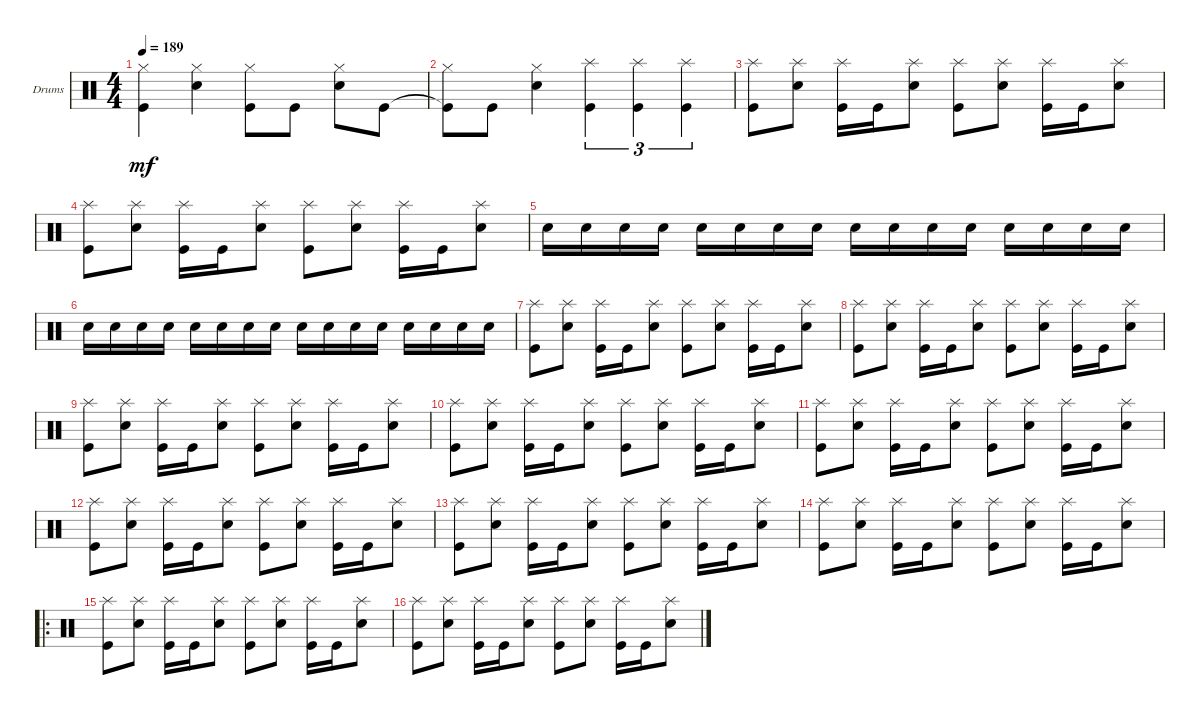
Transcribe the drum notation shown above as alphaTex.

\defaultSystemsLayout 4
\bracketExtendMode groupsimilarinstruments
\firstSystemTrackNameOrientation horizontal
\otherSystemsTrackNameOrientation horizontal
\track ("Drumkit" "Drums") {instrument percussion}
\staff {score}
\articulation defaults
\ts (4 4)
\tempo 189
\clef neutral
\ks c
("Kick (hit)" "Hi-Hat (closed)").4{dy mf} ("Snare (hit) 2" "Hi-Hat (closed)").4 ("Kick (hit)" "Hi-Hat (closed)").8 "Kick (hit)".8 ("Snare (hit) 2" "Hi-Hat (closed)").8 "Kick (hit)".8 |
("Kick (hit)"{t} "Hi-Hat (closed)").8 "Kick (hit)".8 ("Snare (hit) 2" "Hi-Hat (closed)").4 ("Kick (hit)" "Splash (hit)").4{tu (3 2)} ("Kick (hit)" "Splash (hit)").4{tu (3 2)} ("Kick (hit)" "Splash (hit)").4{tu (3 2)} |
("Kick (hit)" "Splash (hit)").8 ("Snare (hit) 2" "Splash (hit)").8 ("Kick (hit)" "Splash (hit)").16 "Kick (hit)".16 ("Snare (hit) 2" "Splash (hit)").8 ("Kick (hit)" "Splash (hit)").8 ("Snare (hit) 2" "Splash (hit)").8 ("Kick (hit)" "Splash (hit)").16 "Kick (hit)".16 ("Snare (hit) 2" "Splash (hit)").8 |
("Kick (hit)" "Splash (hit)").8 ("Snare (hit) 2" "Splash (hit)").8 ("Kick (hit)" "Splash (hit)").16 "Kick (hit)".16 ("Snare (hit) 2" "Splash (hit)").8 ("Kick (hit)" "Splash (hit)").8 ("Snare (hit) 2" "Splash (hit)").8 ("Kick (hit)" "Splash (hit)").16 "Kick (hit)".16 ("Snare (hit) 2" "Splash (hit)").8 |
"Snare (hit) 2".16 "Snare (hit) 2".16 "Snare (hit) 2".16 "Snare (hit) 2".16 "Snare (hit) 2".16 "Snare (hit) 2".16 "Snare (hit) 2".16 "Snare (hit) 2".16 "Snare (hit) 2".16 "Snare (hit) 2".16 "Snare (hit) 2".16 "Snare (hit) 2".16 "Snare (hit) 2".16 "Snare (hit) 2".16 "Snare (hit) 2".16 "Snare (hit) 2".16 |
"Snare (hit) 2".16 "Snare (hit) 2".16 "Snare (hit) 2".16 "Snare (hit) 2".16 "Snare (hit) 2".16 "Snare (hit) 2".16 "Snare (hit) 2".16 "Snare (hit) 2".16 "Snare (hit) 2".16 "Snare (hit) 2".16 "Snare (hit) 2".16 "Snare (hit) 2".16 "Snare (hit) 2".16 "Snare (hit) 2".16 "Snare (hit) 2".16 "Snare (hit) 2".16 |
("Kick (hit)" "Splash (hit)").8 ("Snare (hit) 2" "Splash (hit)").8 ("Kick (hit)" "Splash (hit)").16 "Kick (hit)".16 ("Snare (hit) 2" "Splash (hit)").8 ("Kick (hit)" "Splash (hit)").8 ("Snare (hit) 2" "Splash (hit)").8 ("Kick (hit)" "Splash (hit)").16 "Kick (hit)".16 ("Snare (hit) 2" "Splash (hit)").8 |
("Kick (hit)" "Splash (hit)").8 ("Snare (hit) 2" "Splash (hit)").8 ("Kick (hit)" "Splash (hit)").16 "Kick (hit)".16 ("Snare (hit) 2" "Splash (hit)").8 ("Kick (hit)" "Splash (hit)").8 ("Snare (hit) 2" "Splash (hit)").8 ("Kick (hit)" "Splash (hit)").16 "Kick (hit)".16 ("Snare (hit) 2" "Splash (hit)").8 |
("Kick (hit)" "Splash (hit)").8 ("Snare (hit) 2" "Splash (hit)").8 ("Kick (hit)" "Splash (hit)").16 "Kick (hit)".16 ("Snare (hit) 2" "Splash (hit)").8 ("Kick (hit)" "Splash (hit)").8 ("Snare (hit) 2" "Splash (hit)").8 ("Kick (hit)" "Splash (hit)").16 "Kick (hit)".16 ("Snare (hit) 2" "Splash (hit)").8 |
("Kick (hit)" "Splash (hit)").8 ("Snare (hit) 2" "Splash (hit)").8 ("Kick (hit)" "Splash (hit)").16 "Kick (hit)".16 ("Snare (hit) 2" "Splash (hit)").8 ("Kick (hit)" "Splash (hit)").8 ("Snare (hit) 2" "Splash (hit)").8 ("Kick (hit)" "Splash (hit)").16 "Kick (hit)".16 ("Snare (hit) 2" "Splash (hit)").8 |
("Kick (hit)" "Splash (hit)").8 ("Snare (hit) 2" "Splash (hit)").8 ("Kick (hit)" "Splash (hit)").16 "Kick (hit)".16 ("Snare (hit) 2" "Splash (hit)").8 ("Kick (hit)" "Splash (hit)").8 ("Snare (hit) 2" "Splash (hit)").8 ("Kick (hit)" "Splash (hit)").16 "Kick (hit)".16 ("Snare (hit) 2" "Splash (hit)").8 |
("Kick (hit)" "Splash (hit)").8 ("Snare (hit) 2" "Splash (hit)").8 ("Kick (hit)" "Splash (hit)").16 "Kick (hit)".16 ("Snare (hit) 2" "Splash (hit)").8 ("Kick (hit)" "Splash (hit)").8 ("Snare (hit) 2" "Splash (hit)").8 ("Kick (hit)" "Splash (hit)").16 "Kick (hit)".16 ("Snare (hit) 2" "Splash (hit)").8 |
("Kick (hit)" "Splash (hit)").8 ("Snare (hit) 2" "Splash (hit)").8 ("Kick (hit)" "Splash (hit)").16 "Kick (hit)".16 ("Snare (hit) 2" "Splash (hit)").8 ("Kick (hit)" "Splash (hit)").8 ("Snare (hit) 2" "Splash (hit)").8 ("Kick (hit)" "Splash (hit)").16 "Kick (hit)".16 ("Snare (hit) 2" "Splash (hit)").8 |
("Kick (hit)" "Splash (hit)").8 ("Snare (hit) 2" "Splash (hit)").8 ("Kick (hit)" "Splash (hit)").16 "Kick (hit)".16 ("Snare (hit) 2" "Splash (hit)").8 ("Kick (hit)" "Splash (hit)").8 ("Snare (hit) 2" "Splash (hit)").8 ("Kick (hit)" "Splash (hit)").16 "Kick (hit)".16 ("Snare (hit) 2" "Splash (hit)").8 |
\ro
("Kick (hit)" "Splash (hit)").8 ("Snare (hit) 2" "Splash (hit)").8 ("Kick (hit)" "Splash (hit)").16 "Kick (hit)".16 ("Snare (hit) 2" "Splash (hit)").8 ("Kick (hit)" "Splash (hit)").8 ("Snare (hit) 2" "Splash (hit)").8 ("Kick (hit)" "Splash (hit)").16 "Kick (hit)".16 ("Snare (hit) 2" "Splash (hit)").8 |
("Kick (hit)" "Splash (hit)").8 ("Snare (hit) 2" "Splash (hit)").8 ("Kick (hit)" "Splash (hit)").16 "Kick (hit)".16 ("Snare (hit) 2" "Splash (hit)").8 ("Kick (hit)" "Splash (hit)").8 ("Snare (hit) 2" "Splash (hit)").8 ("Kick (hit)" "Splash (hit)").16 "Kick (hit)".16 ("Snare (hit) 2" "Splash (hit)").8
